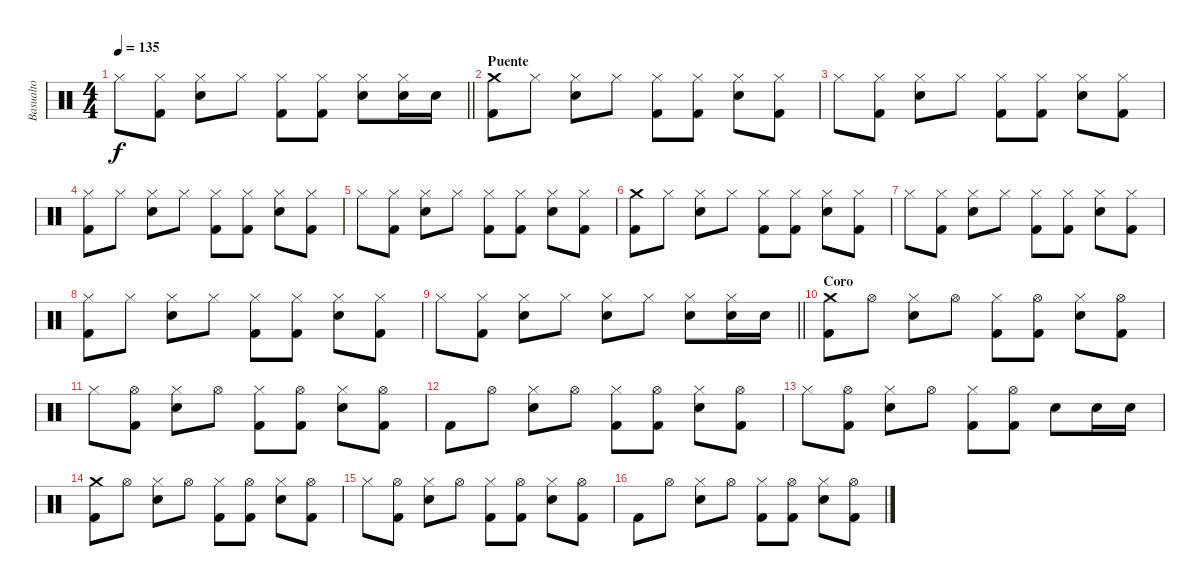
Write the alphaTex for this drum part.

\track ("Basualto" "Basualto") {instrument percussion}
\staff {score}
\articulation defaults
\ts (4 4)
\tempo 135
\clef neutral
\barLineRight lightlight
\ks c "Hi-Hat (closed)".8{dy f}
("Hi-Hat (closed)" "Kick (hit) 2").8 ("Hi-Hat (closed)" "Snare (hit) 2").8 "Hi-Hat (closed)".8 ("Hi-Hat (closed)" "Kick (hit) 2").8 ("Hi-Hat (closed)" "Kick (hit) 2").8 ("Hi-Hat (closed)" "Snare (hit) 2").8 ("Hi-Hat (closed)" "Snare (hit) 2").16 "Snare (hit) 2".16 |
\section ("" "Puente")
("Crash medium (hit)" "Kick (hit) 2").8 "Hi-Hat (closed)".8 ("Hi-Hat (closed)" "Snare (hit) 2").8 "Hi-Hat (closed)".8 ("Hi-Hat (closed)" "Kick (hit) 2").8 ("Hi-Hat (closed)" "Kick (hit) 2").8 ("Hi-Hat (closed)" "Snare (hit) 2").8 ("Hi-Hat (closed)" "Kick (hit) 2").8 |
"Hi-Hat (closed)".8 ("Hi-Hat (closed)" "Kick (hit) 2").8 ("Hi-Hat (closed)" "Snare (hit) 2").8 "Hi-Hat (closed)".8 ("Hi-Hat (closed)" "Kick (hit) 2").8 ("Hi-Hat (closed)" "Kick (hit) 2").8 ("Hi-Hat (closed)" "Snare (hit) 2").8 ("Hi-Hat (closed)" "Kick (hit) 2").8 |
("Hi-Hat (closed)" "Kick (hit) 2").8 "Hi-Hat (closed)".8 ("Hi-Hat (closed)" "Snare (hit) 2").8 "Hi-Hat (closed)".8 ("Hi-Hat (closed)" "Kick (hit) 2").8 ("Hi-Hat (closed)" "Kick (hit) 2").8 ("Hi-Hat (closed)" "Snare (hit) 2").8 ("Hi-Hat (closed)" "Kick (hit) 2").8 |
"Hi-Hat (closed)".8 ("Hi-Hat (closed)" "Kick (hit) 2").8 ("Hi-Hat (closed)" "Snare (hit) 2").8 "Hi-Hat (closed)".8 ("Hi-Hat (closed)" "Kick (hit) 2").8 ("Hi-Hat (closed)" "Kick (hit) 2").8 ("Hi-Hat (closed)" "Snare (hit) 2").8 ("Hi-Hat (closed)" "Kick (hit) 2").8 |
("Crash medium (hit)" "Kick (hit) 2").8 "Hi-Hat (closed)".8 ("Hi-Hat (closed)" "Snare (hit) 2").8 "Hi-Hat (closed)".8 ("Hi-Hat (closed)" "Kick (hit) 2").8 ("Hi-Hat (closed)" "Kick (hit) 2").8 ("Hi-Hat (closed)" "Snare (hit) 2").8 ("Hi-Hat (closed)" "Kick (hit) 2").8 |
"Hi-Hat (closed)".8 ("Hi-Hat (closed)" "Kick (hit) 2").8 ("Hi-Hat (closed)" "Snare (hit) 2").8 "Hi-Hat (closed)".8 ("Hi-Hat (closed)" "Kick (hit) 2").8 ("Hi-Hat (closed)" "Kick (hit) 2").8 ("Hi-Hat (closed)" "Snare (hit) 2").8 ("Hi-Hat (closed)" "Kick (hit) 2").8 |
("Hi-Hat (closed)" "Kick (hit) 2").8 "Hi-Hat (closed)".8 ("Hi-Hat (closed)" "Snare (hit) 2").8 "Hi-Hat (closed)".8 ("Hi-Hat (closed)" "Kick (hit) 2").8 ("Hi-Hat (closed)" "Kick (hit) 2").8 ("Hi-Hat (closed)" "Snare (hit) 2").8 ("Hi-Hat (closed)" "Kick (hit) 2").8 |
\barLineRight lightlight "Hi-Hat (closed)".8
("Hi-Hat (closed)" "Kick (hit) 2").8 ("Hi-Hat (closed)" "Snare (hit) 2").8 "Hi-Hat (closed)".8 ("Hi-Hat (closed)" "Snare (hit) 2").8 "Hi-Hat (closed)".8 ("Hi-Hat (closed)" "Snare (hit) 2").8 ("Hi-Hat (closed)" "Snare (hit) 2").16 "Snare (hit) 2".16 |
\section ("" "Coro")
("Crash medium (hit)" "Kick (hit) 2").8 "Hi-Hat (open)".8 ("Hi-Hat (closed)" "Snare (hit) 2").8 "Hi-Hat (open)".8 ("Hi-Hat (closed)" "Kick (hit) 2").8 ("Hi-Hat (open)" "Kick (hit) 2").8 ("Hi-Hat (closed)" "Snare (hit) 2").8 ("Hi-Hat (open)" "Kick (hit) 2").8 |
"Hi-Hat (closed)".8 ("Hi-Hat (open)" "Kick (hit) 2").8 ("Hi-Hat (closed)" "Snare (hit) 2").8 "Hi-Hat (open)".8 ("Hi-Hat (closed)" "Kick (hit) 2").8 ("Hi-Hat (open)" "Kick (hit) 2").8 ("Hi-Hat (closed)" "Snare (hit) 2").8 ("Hi-Hat (open)" "Kick (hit) 2").8 |
"Kick (hit) 2".8 "Hi-Hat (open)".8 ("Hi-Hat (closed)" "Snare (hit) 2").8 "Hi-Hat (open)".8 ("Hi-Hat (closed)" "Kick (hit) 2").8 ("Hi-Hat (open)" "Kick (hit) 2").8 ("Hi-Hat (closed)" "Snare (hit) 2").8 ("Hi-Hat (open)" "Kick (hit) 2").8 |
"Hi-Hat (closed)".8 ("Hi-Hat (open)" "Kick (hit) 2").8 ("Hi-Hat (closed)" "Snare (hit) 2").8 "Hi-Hat (open)".8 ("Hi-Hat (closed)" "Kick (hit) 2").8 ("Hi-Hat (open)" "Kick (hit) 2").8 "Snare (hit) 2".8 "Snare (hit) 2".16 "Snare (hit) 2".16 |
("Crash medium (hit)" "Kick (hit) 2").8 "Hi-Hat (open)".8 ("Hi-Hat (closed)" "Snare (hit) 2").8 "Hi-Hat (open)".8 ("Hi-Hat (closed)" "Kick (hit) 2").8 ("Hi-Hat (open)" "Kick (hit) 2").8 ("Hi-Hat (closed)" "Snare (hit) 2").8 ("Hi-Hat (open)" "Kick (hit) 2").8 |
"Hi-Hat (closed)".8 ("Hi-Hat (open)" "Kick (hit) 2").8 ("Hi-Hat (closed)" "Snare (hit) 2").8 "Hi-Hat (open)".8 ("Hi-Hat (closed)" "Kick (hit) 2").8 ("Hi-Hat (open)" "Kick (hit) 2").8 ("Hi-Hat (closed)" "Snare (hit) 2").8 ("Hi-Hat (open)" "Kick (hit) 2").8 |
"Kick (hit) 2".8 "Hi-Hat (open)".8 ("Hi-Hat (closed)" "Snare (hit) 2").8 "Hi-Hat (open)".8 ("Hi-Hat (closed)" "Kick (hit) 2").8 ("Hi-Hat (open)" "Kick (hit) 2").8 ("Hi-Hat (closed)" "Snare (hit) 2").8 ("Hi-Hat (open)" "Kick (hit) 2").8
